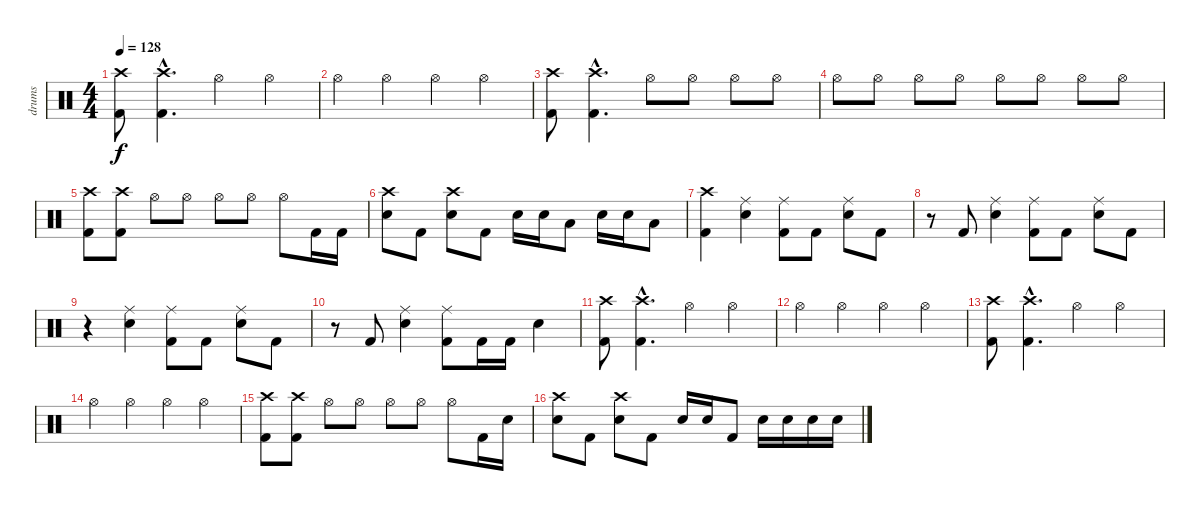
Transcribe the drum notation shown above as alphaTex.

\track ("drums" "drums") {instrument percussion}
\staff {score}
\articulation defaults
\ts (4 4)
\tempo 128
\clef neutral
\ks c
("Crash high (hit)" "Kick (hit) 2").8{dy f} ("Crash high (hit)"{hac} "Kick (hit) 2"{hac}).4{d} "Hi-Hat (open)".4 "Hi-Hat (open)".4 |
"Hi-Hat (open)".4 "Hi-Hat (open)".4 "Hi-Hat (open)".4 "Hi-Hat (open)".4 |
("Crash high (hit)" "Kick (hit) 2").8 ("Crash high (hit)"{hac} "Kick (hit) 2"{hac}).4{d} "Hi-Hat (open)".8 "Hi-Hat (open)".8 "Hi-Hat (open)".8 "Hi-Hat (open)".8 |
"Hi-Hat (open)".8 "Hi-Hat (open)".8 "Hi-Hat (open)".8 "Hi-Hat (open)".8 "Hi-Hat (open)".8 "Hi-Hat (open)".8 "Hi-Hat (open)".8 "Hi-Hat (open)".8 |
("Crash high (hit)" "Kick (hit) 2").8 ("Crash high (hit)" "Kick (hit) 2").8 "Hi-Hat (open)".8 "Hi-Hat (open)".8 "Hi-Hat (open)".8 "Hi-Hat (open)".8 "Hi-Hat (open)".8 "Kick (hit) 2".16 "Kick (hit) 2".16 |
("Crash high (hit)" "Electric Snare (hit)").8 "Kick (hit) 2".8 ("Crash high (hit)" "Electric Snare (hit)").8 "Kick (hit) 2".8 "Electric Snare (hit)".16 "Electric Snare (hit)".16 "Low Tom (hit)".8 "Electric Snare (hit)".16 "Electric Snare (hit)".16 "Low Tom (hit)".8 |
("Crash high (hit)" "Kick (hit) 2").4 ("Ride (middle)" "Electric Snare (hit)").4 ("Ride (middle)" "Kick (hit) 2").8 "Kick (hit) 2".8 ("Ride (middle)" "Electric Snare (hit)").8 "Kick (hit) 2".8 |
r.8 "Kick (hit) 2".8 ("Ride (middle)" "Electric Snare (hit)").4 ("Ride (middle)" "Kick (hit) 2").8 "Kick (hit) 2".8 ("Ride (middle)" "Electric Snare (hit)").8 "Kick (hit) 2".8 |
r.4 ("Ride (middle)" "Electric Snare (hit)").4 ("Ride (middle)" "Kick (hit) 2").8 "Kick (hit) 2".8 ("Ride (middle)" "Electric Snare (hit)").8 "Kick (hit) 2".8 |
r.8 "Kick (hit) 2".8 ("Ride (middle)" "Electric Snare (hit)").4 ("Ride (middle)" "Kick (hit) 2").8 "Kick (hit) 2".16 "Kick (hit) 2".16 "Electric Snare (hit)".4 |
("Crash high (hit)" "Kick (hit) 2").8 ("Crash high (hit)"{hac} "Kick (hit) 2"{hac}).4{d} "Hi-Hat (open)".4 "Hi-Hat (open)".4 |
"Hi-Hat (open)".4 "Hi-Hat (open)".4 "Hi-Hat (open)".4 "Hi-Hat (open)".4 |
("Crash high (hit)" "Kick (hit) 2").8 ("Crash high (hit)"{hac} "Kick (hit) 2"{hac}).4{d} "Hi-Hat (open)".4 "Hi-Hat (open)".4 |
"Hi-Hat (open)".4 "Hi-Hat (open)".4 "Hi-Hat (open)".4 "Hi-Hat (open)".4 |
("Crash high (hit)" "Kick (hit) 2").8 ("Crash high (hit)" "Kick (hit) 2").8 "Hi-Hat (open)".8 "Hi-Hat (open)".8 "Hi-Hat (open)".8 "Hi-Hat (open)".8 "Hi-Hat (open)".8 "Kick (hit) 2".16 "Snare (hit)".16 |
("Crash high (hit)" "Electric Snare (hit)").8 "Kick (hit) 2".8 ("Crash high (hit)" "Electric Snare (hit)").8 "Kick (hit) 2".8 "Electric Snare (hit)".16 "Electric Snare (hit)".16 "Kick (hit) 2".8 "Electric Snare (hit)".16 "Electric Snare (hit)".16 "Electric Snare (hit)".16 "Electric Snare (hit)".16
